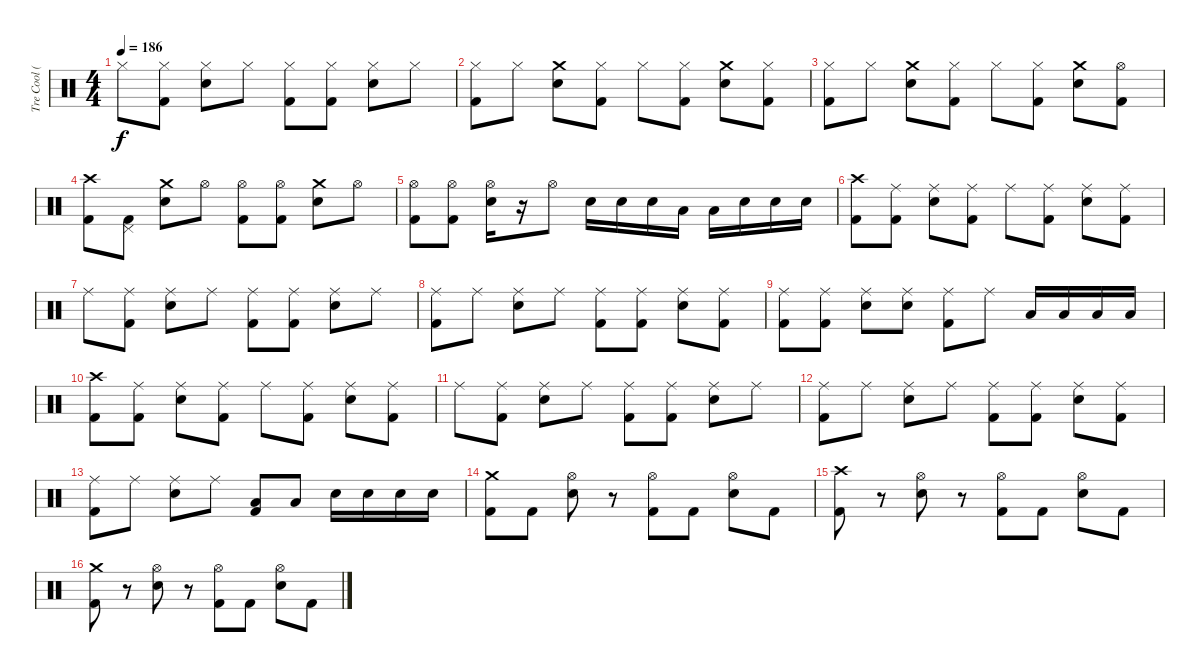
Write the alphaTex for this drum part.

\track ("Tre Cool (Drums)" "Tre Cool (") {instrument percussion}
\staff {score}
\articulation defaults
\ts (4 4)
\tempo 186
\clef neutral
\ks c "Hi-Hat (closed)".8{dy f}
("Kick (hit) 2" "Hi-Hat (closed)").8 ("Snare (hit) 2" "Hi-Hat (closed)").8 "Hi-Hat (closed)".8 ("Kick (hit) 2" "Hi-Hat (closed)").8 ("Kick (hit) 2" "Hi-Hat (closed)").8 ("Hi-Hat (closed)" "Snare (hit) 2").8 "Hi-Hat (closed)".8 |
("Hi-Hat (closed)" "Kick (hit) 2").8 "Hi-Hat (closed)".8 ("Crash medium (hit)" "Snare (hit) 2").8 ("Kick (hit) 2" "Hi-Hat (closed)").8 "Hi-Hat (closed)".8 ("Kick (hit) 2" "Hi-Hat (closed)").8 ("Crash medium (hit)" "Snare (hit) 2").8 ("Kick (hit) 2" "Hi-Hat (closed)").8 |
("Hi-Hat (closed)" "Kick (hit) 2").8 "Hi-Hat (closed)".8 ("Crash medium (hit)" "Snare (hit) 2").8 ("Kick (hit) 2" "Hi-Hat (closed)").8 "Hi-Hat (closed)".8 ("Kick (hit) 2" "Hi-Hat (closed)").8 ("Crash medium (hit)" "Snare (hit) 2").8 ("Kick (hit) 2" "Hi-Hat (open)").8 |
("Kick (hit) 2" "Crash high (hit)").8 ("Kick (hit) 2" "Pedal Hi-Hat (hit)").8 ("Snare (hit) 2" "Crash medium (hit)").8 "Hi-Hat (open)".8 ("Kick (hit) 2" "Hi-Hat (open)").8 ("Kick (hit) 2" "Hi-Hat (open)").8 ("Snare (hit) 2" "Crash medium (hit)").8 "Hi-Hat (open)".8 |
("Kick (hit) 2" "Hi-Hat (open)").8 ("Kick (hit) 2" "Hi-Hat (open)").8 ("Snare (hit) 2" "Hi-Hat (open)").16 r.16 "Hi-Hat (open)".8 "Snare (hit) 2".16 "Snare (hit) 2".16 "Snare (hit) 2".16 "Low Tom (hit)".16 "Low Tom (hit)".16 "Snare (hit) 2".16 "Snare (hit) 2".16 "Snare (hit) 2".16 |
("Kick (hit) 2" "Crash high (hit)").8 ("Ride (middle)" "Kick (hit) 2").8 ("Ride (middle)" "Snare (hit) 2").8 ("Ride (middle)" "Kick (hit) 2").8 "Ride (middle)".8 ("Kick (hit) 2" "Ride (middle)").8 ("Snare (hit) 2" "Ride (middle)").8 ("Kick (hit) 2" "Ride (middle)").8 |
"Ride (middle)".8 ("Kick (hit) 2" "Ride (middle)").8 ("Snare (hit) 2" "Ride (middle)").8 "Ride (middle)".8 ("Kick (hit) 2" "Ride (middle)").8 ("Kick (hit) 2" "Ride (middle)").8 ("Snare (hit) 2" "Ride (middle)").8 "Ride (middle)".8 |
("Kick (hit) 2" "Ride (middle)").8 "Ride (middle)".8 ("Snare (hit) 2" "Ride (middle)").8 "Ride (middle)".8 ("Kick (hit) 2" "Ride (middle)").8 ("Kick (hit) 2" "Ride (middle)").8 ("Snare (hit) 2" "Ride (middle)").8 ("Kick (hit) 2" "Ride (middle)").8 |
("Ride (middle)" "Kick (hit) 2").8 ("Ride (middle)" "Kick (hit) 2").8 ("Ride (middle)" "Snare (hit) 2").8 ("Ride (middle)" "Snare (hit) 2").8 ("Kick (hit) 2" "Ride (middle)").8 "Ride (middle)".8 "Low Tom (hit)".16 "Low Tom (hit)".16 "Low Tom (hit)".16 "Low Tom (hit)".16 |
("Kick (hit) 2" "Crash high (hit)").8 ("Ride (middle)" "Kick (hit) 2").8 ("Ride (middle)" "Snare (hit) 2").8 ("Ride (middle)" "Kick (hit) 2").8 "Ride (middle)".8 ("Kick (hit) 2" "Ride (middle)").8 ("Snare (hit) 2" "Ride (middle)").8 ("Kick (hit) 2" "Ride (middle)").8 |
"Ride (middle)".8 ("Ride (middle)" "Kick (hit) 2").8 ("Ride (middle)" "Snare (hit) 2").8 "Ride (middle)".8 ("Ride (middle)" "Kick (hit) 2").8 ("Ride (middle)" "Kick (hit) 2").8 ("Ride (middle)" "Snare (hit) 2").8 "Ride (middle)".8 |
("Ride (middle)" "Kick (hit) 2").8 "Ride (middle)".8 ("Ride (middle)" "Snare (hit) 2").8 "Ride (middle)".8 ("Ride (middle)" "Kick (hit) 2").8 ("Kick (hit) 2" "Ride (middle)").8 ("Ride (middle)" "Snare (hit) 2").8 ("Ride (middle)" "Kick (hit) 2").8 |
("Ride (middle)" "Kick (hit) 2").8 "Ride (middle)".8 ("Ride (middle)" "Snare (hit) 2").8 "Ride (middle)".8 ("Kick (hit) 2" "Low Tom (hit)").8 "Low Tom (hit)".8 "Snare (hit) 2".16 "Snare (hit) 2".16 "Snare (hit) 2".16 "Snare (hit) 2".16 |
("Crash medium (hit)" "Kick (hit) 2").8 "Kick (hit) 2".8 ("Hi-Hat (open)" "Snare (hit) 2").8 r.8 ("Hi-Hat (open)" "Kick (hit) 2").8 "Kick (hit) 2".8 ("Hi-Hat (open)" "Snare (hit) 2").8 "Kick (hit) 2".8 |
("Crash high (hit)" "Kick (hit) 2").8 r.8 ("Hi-Hat (open)" "Snare (hit) 2").8 r.8 ("Hi-Hat (open)" "Kick (hit) 2").8 "Kick (hit) 2".8 ("Hi-Hat (open)" "Snare (hit) 2").8 "Kick (hit) 2".8 |
("Kick (hit) 2" "Crash medium (hit)").8 r.8 ("Snare (hit) 2" "Hi-Hat (open)").8 r.8 ("Kick (hit) 2" "Hi-Hat (open)").8 "Kick (hit) 2".8 ("Snare (hit) 2" "Hi-Hat (open)").8 "Kick (hit) 2".8
